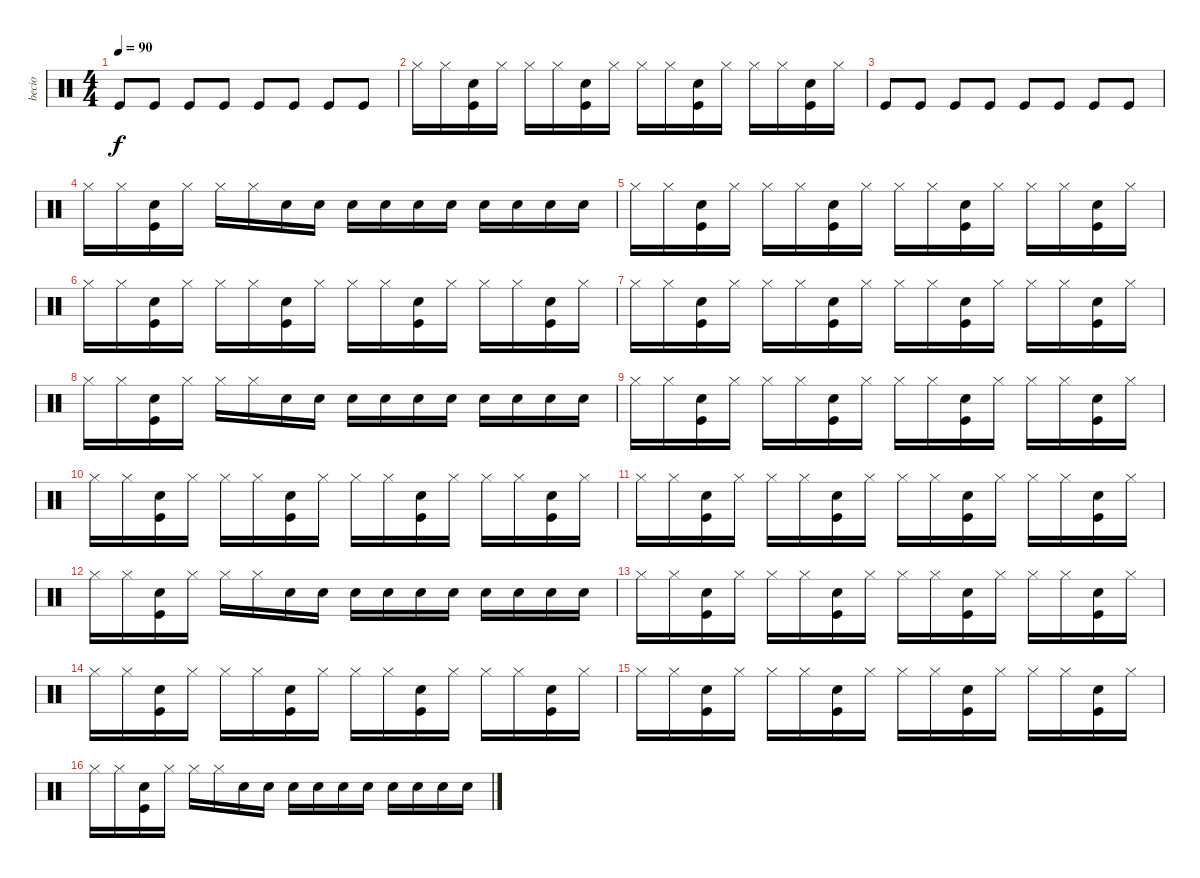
\track ("becio" "becio") {instrument percussion}
\staff {score}
\articulation defaults
\ts (4 4)
\tempo 90
\clef neutral
\ks c "Kick (hit)".8{dy f} "Kick (hit)".8 "Kick (hit)".8 "Kick (hit)".8 "Kick (hit)".8 "Kick (hit)".8 "Kick (hit)".8 "Kick (hit)".8
|
"Hi-Hat (closed)".16 "Hi-Hat (closed)".16 ("Electric Snare (hit)" "Kick (hit)").16 "Hi-Hat (closed)".16 "Hi-Hat (closed)".16 "Hi-Hat (closed)".16 ("Electric Snare (hit)" "Kick (hit)").16 "Hi-Hat (closed)".16 "Hi-Hat (closed)".16 "Hi-Hat (closed)".16 ("Electric Snare (hit)" "Kick (hit)").16 "Hi-Hat (closed)".16 "Hi-Hat (closed)".16 "Hi-Hat (closed)".16 ("Electric Snare (hit)" "Kick (hit)").16 "Hi-Hat (closed)".16 |
"Kick (hit)".8 "Kick (hit)".8 "Kick (hit)".8 "Kick (hit)".8 "Kick (hit)".8 "Kick (hit)".8 "Kick (hit)".8 "Kick (hit)".8 |
"Hi-Hat (closed)".16 "Hi-Hat (closed)".16 ("Electric Snare (hit)" "Kick (hit)").16 "Hi-Hat (closed)".16 "Hi-Hat (closed)".16 "Hi-Hat (closed)".16 "Electric Snare (hit)".16 "Electric Snare (hit)".16 "Electric Snare (hit)".16 "Electric Snare (hit)".16 "Electric Snare (hit)".16 "Electric Snare (hit)".16 "Electric Snare (hit)".16 "Electric Snare (hit)".16 "Electric Snare (hit)".16 "Electric Snare (hit)".16 |
"Hi-Hat (closed)".16 "Hi-Hat (closed)".16 ("Electric Snare (hit)" "Kick (hit)").16 "Hi-Hat (closed)".16 "Hi-Hat (closed)".16 "Hi-Hat (closed)".16 ("Electric Snare (hit)" "Kick (hit)").16 "Hi-Hat (closed)".16 "Hi-Hat (closed)".16 "Hi-Hat (closed)".16 ("Electric Snare (hit)" "Kick (hit)").16 "Hi-Hat (closed)".16 "Hi-Hat (closed)".16 "Hi-Hat (closed)".16 ("Electric Snare (hit)" "Kick (hit)").16 "Hi-Hat (closed)".16 |
"Hi-Hat (closed)".16 "Hi-Hat (closed)".16 ("Electric Snare (hit)" "Kick (hit)").16 "Hi-Hat (closed)".16 "Hi-Hat (closed)".16 "Hi-Hat (closed)".16 ("Electric Snare (hit)" "Kick (hit)").16 "Hi-Hat (closed)".16 "Hi-Hat (closed)".16 "Hi-Hat (closed)".16 ("Electric Snare (hit)" "Kick (hit)").16 "Hi-Hat (closed)".16 "Hi-Hat (closed)".16 "Hi-Hat (closed)".16 ("Electric Snare (hit)" "Kick (hit)").16 "Hi-Hat (closed)".16 |
"Hi-Hat (closed)".16 "Hi-Hat (closed)".16 ("Electric Snare (hit)" "Kick (hit)").16 "Hi-Hat (closed)".16 "Hi-Hat (closed)".16 "Hi-Hat (closed)".16 ("Electric Snare (hit)" "Kick (hit)").16 "Hi-Hat (closed)".16 "Hi-Hat (closed)".16 "Hi-Hat (closed)".16 ("Electric Snare (hit)" "Kick (hit)").16 "Hi-Hat (closed)".16 "Hi-Hat (closed)".16 "Hi-Hat (closed)".16 ("Electric Snare (hit)" "Kick (hit)").16 "Hi-Hat (closed)".16 |
"Hi-Hat (closed)".16 "Hi-Hat (closed)".16 ("Electric Snare (hit)" "Kick (hit)").16 "Hi-Hat (closed)".16 "Hi-Hat (closed)".16 "Hi-Hat (closed)".16 "Electric Snare (hit)".16 "Electric Snare (hit)".16 "Electric Snare (hit)".16 "Electric Snare (hit)".16 "Electric Snare (hit)".16 "Electric Snare (hit)".16 "Electric Snare (hit)".16 "Electric Snare (hit)".16 "Electric Snare (hit)".16 "Electric Snare (hit)".16 |
"Hi-Hat (closed)".16 "Hi-Hat (closed)".16 ("Electric Snare (hit)" "Kick (hit)").16 "Hi-Hat (closed)".16 "Hi-Hat (closed)".16 "Hi-Hat (closed)".16 ("Electric Snare (hit)" "Kick (hit)").16 "Hi-Hat (closed)".16 "Hi-Hat (closed)".16 "Hi-Hat (closed)".16 ("Electric Snare (hit)" "Kick (hit)").16 "Hi-Hat (closed)".16 "Hi-Hat (closed)".16 "Hi-Hat (closed)".16 ("Electric Snare (hit)" "Kick (hit)").16 "Hi-Hat (closed)".16 |
"Hi-Hat (closed)".16 "Hi-Hat (closed)".16 ("Electric Snare (hit)" "Kick (hit)").16 "Hi-Hat (closed)".16 "Hi-Hat (closed)".16 "Hi-Hat (closed)".16 ("Electric Snare (hit)" "Kick (hit)").16 "Hi-Hat (closed)".16 "Hi-Hat (closed)".16 "Hi-Hat (closed)".16 ("Electric Snare (hit)" "Kick (hit)").16 "Hi-Hat (closed)".16 "Hi-Hat (closed)".16 "Hi-Hat (closed)".16 ("Electric Snare (hit)" "Kick (hit)").16 "Hi-Hat (closed)".16 |
"Hi-Hat (closed)".16 "Hi-Hat (closed)".16 ("Electric Snare (hit)" "Kick (hit)").16 "Hi-Hat (closed)".16 "Hi-Hat (closed)".16 "Hi-Hat (closed)".16 ("Electric Snare (hit)" "Kick (hit)").16 "Hi-Hat (closed)".16 "Hi-Hat (closed)".16 "Hi-Hat (closed)".16 ("Electric Snare (hit)" "Kick (hit)").16 "Hi-Hat (closed)".16 "Hi-Hat (closed)".16 "Hi-Hat (closed)".16 ("Electric Snare (hit)" "Kick (hit)").16 "Hi-Hat (closed)".16 |
"Hi-Hat (closed)".16 "Hi-Hat (closed)".16 ("Electric Snare (hit)" "Kick (hit)").16 "Hi-Hat (closed)".16 "Hi-Hat (closed)".16 "Hi-Hat (closed)".16 "Electric Snare (hit)".16 "Electric Snare (hit)".16 "Electric Snare (hit)".16 "Electric Snare (hit)".16 "Electric Snare (hit)".16 "Electric Snare (hit)".16 "Electric Snare (hit)".16 "Electric Snare (hit)".16 "Electric Snare (hit)".16 "Electric Snare (hit)".16 |
"Hi-Hat (closed)".16 "Hi-Hat (closed)".16 ("Electric Snare (hit)" "Kick (hit)").16 "Hi-Hat (closed)".16 "Hi-Hat (closed)".16 "Hi-Hat (closed)".16 ("Electric Snare (hit)" "Kick (hit)").16 "Hi-Hat (closed)".16 "Hi-Hat (closed)".16 "Hi-Hat (closed)".16 ("Electric Snare (hit)" "Kick (hit)").16 "Hi-Hat (closed)".16 "Hi-Hat (closed)".16 "Hi-Hat (closed)".16 ("Electric Snare (hit)" "Kick (hit)").16 "Hi-Hat (closed)".16 |
"Hi-Hat (closed)".16 "Hi-Hat (closed)".16 ("Electric Snare (hit)" "Kick (hit)").16 "Hi-Hat (closed)".16 "Hi-Hat (closed)".16 "Hi-Hat (closed)".16 ("Electric Snare (hit)" "Kick (hit)").16 "Hi-Hat (closed)".16 "Hi-Hat (closed)".16 "Hi-Hat (closed)".16 ("Electric Snare (hit)" "Kick (hit)").16 "Hi-Hat (closed)".16 "Hi-Hat (closed)".16 "Hi-Hat (closed)".16 ("Electric Snare (hit)" "Kick (hit)").16 "Hi-Hat (closed)".16 |
"Hi-Hat (closed)".16 "Hi-Hat (closed)".16 ("Electric Snare (hit)" "Kick (hit)").16 "Hi-Hat (closed)".16 "Hi-Hat (closed)".16 "Hi-Hat (closed)".16 ("Electric Snare (hit)" "Kick (hit)").16 "Hi-Hat (closed)".16 "Hi-Hat (closed)".16 "Hi-Hat (closed)".16 ("Electric Snare (hit)" "Kick (hit)").16 "Hi-Hat (closed)".16 "Hi-Hat (closed)".16 "Hi-Hat (closed)".16 ("Electric Snare (hit)" "Kick (hit)").16 "Hi-Hat (closed)".16 |
"Hi-Hat (closed)".16 "Hi-Hat (closed)".16 ("Electric Snare (hit)" "Kick (hit)").16 "Hi-Hat (closed)".16 "Hi-Hat (closed)".16 "Hi-Hat (closed)".16 "Electric Snare (hit)".16 "Electric Snare (hit)".16 "Electric Snare (hit)".16 "Electric Snare (hit)".16 "Electric Snare (hit)".16 "Electric Snare (hit)".16 "Electric Snare (hit)".16 "Electric Snare (hit)".16 "Electric Snare (hit)".16 "Electric Snare (hit)".16
